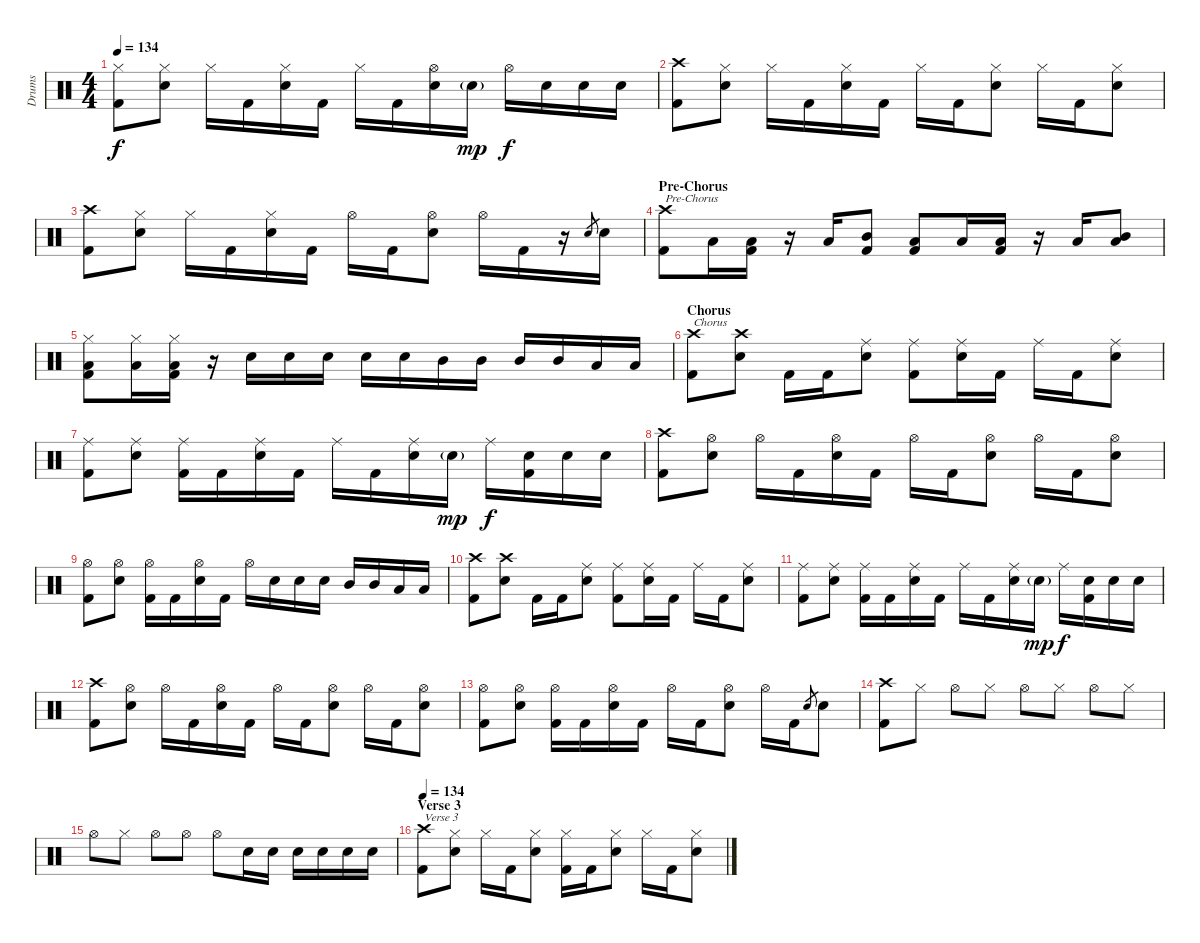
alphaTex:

\track ("Drums" "Drums") {instrument percussion}
\staff {score}
\articulation defaults
\ts (4 4)
\tempo 134
\clef neutral
\ks c
("Hi-Hat (closed)" "Kick (hit) 2").8{dy f} ("Hi-Hat (closed)" "Electric Snare (hit)").8 "Hi-Hat (closed)".16 "Kick (hit) 2".16 ("Hi-Hat (closed)" "Electric Snare (hit)").16 "Kick (hit) 2".16 "Hi-Hat (closed)".16 "Kick (hit) 2".16 ("Hi-Hat (open)" "Electric Snare (hit)").16 "Electric Snare (hit)"{g}.16{dy mp} "Hi-Hat (open)".16{dy f} "Electric Snare (hit)".16 "Electric Snare (hit)".16 "Electric Snare (hit)".16 |
("Crash high (hit)" "Kick (hit) 2").8 ("Hi-Hat (closed)" "Electric Snare (hit)").8 "Hi-Hat (closed)".16 "Kick (hit) 2".16 ("Hi-Hat (closed)" "Electric Snare (hit)").16 "Kick (hit) 2".16 "Hi-Hat (closed)".16 "Kick (hit) 2".16 ("Hi-Hat (closed)" "Electric Snare (hit)").8 "Hi-Hat (closed)".16 "Kick (hit) 2".16 ("Hi-Hat (closed)" "Electric Snare (hit)").8 |
("Crash high (hit)" "Kick (hit) 2").8 ("Hi-Hat (closed)" "Electric Snare (hit)").8 "Hi-Hat (closed)".16 "Kick (hit) 2".16 ("Hi-Hat (closed)" "Electric Snare (hit)").16 "Kick (hit) 2".16 "Hi-Hat (open)".16 "Kick (hit) 2".16 ("Hi-Hat (open)" "Electric Snare (hit)").8 "Hi-Hat (open)".16 "Kick (hit) 2".16 r.16 "Electric Snare (hit)".8{gr} "Electric Snare (hit)".16 |
\section ("" "Pre-Chorus")
("Crash high (hit)" "Kick (hit) 2").8{txt "Pre-Chorus"} "Low Floor Tom (hit)".16 ("Low Floor Tom (hit)" "Kick (hit) 2").16 r.16 "Low Floor Tom (hit)".16 ("Mid Tom (hit)" "Kick (hit) 2").8 ("Low Floor Tom (hit)" "Kick (hit) 2").8 "Low Floor Tom (hit)".16 ("Low Floor Tom (hit)" "Kick (hit) 2").16 r.16 "Low Floor Tom (hit)".16 ("Mid Tom (hit)" "Low Floor Tom (hit)").8 |
("Hi-Hat (closed)" "Low Floor Tom (hit)" "Kick (hit) 2").8 ("Hi-Hat (closed)" "Low Floor Tom (hit)").16 ("Hi-Hat (closed)" "Low Floor Tom (hit)" "Kick (hit) 2").16 r.16 "Electric Snare (hit)".16 "Electric Snare (hit)".16 "Electric Snare (hit)".16 "Electric Snare (hit)".16 "Electric Snare (hit)".16 "Mid Tom (hit)".16 "Mid Tom (hit)".16 "Mid Tom (hit)".16 "Mid Tom (hit)".16 "Low Floor Tom (hit)".16 "Low Floor Tom (hit)".16 |
\section ("" "Chorus")
("Crash high (hit)" "Kick (hit) 2").8{txt "Chorus"} ("Crash high (hit)" "Electric Snare (hit)").8 "Kick (hit) 2".16 "Kick (hit) 2".16 ("Ride (middle)" "Electric Snare (hit)").8 ("Ride (middle)" "Kick (hit) 2").8 ("Ride (middle)" "Electric Snare (hit)").16 "Kick (hit) 2".16 "Ride (middle)".16 "Kick (hit) 2".16 ("Ride (middle)" "Electric Snare (hit)").8 |
("Ride (middle)" "Kick (hit) 2").8 ("Ride (middle)" "Electric Snare (hit)").8 ("Ride (middle)" "Kick (hit) 2").16 "Kick (hit) 2".16 ("Ride (middle)" "Electric Snare (hit)").16 "Kick (hit) 2".16 "Ride (middle)".16 "Kick (hit) 2".16 ("Ride (middle)" "Electric Snare (hit)").16 "Electric Snare (hit)"{g}.16{dy mp} "Ride (middle)".16{dy f} ("Electric Snare (hit)" "Kick (hit) 2").16 "Electric Snare (hit)".16 "Electric Snare (hit)".16 |
("Crash high (hit)" "Kick (hit) 2").8 ("Hi-Hat (open)" "Electric Snare (hit)").8 "Hi-Hat (open)".16 "Kick (hit) 2".16 ("Hi-Hat (open)" "Electric Snare (hit)").16 "Kick (hit) 2".16 "Hi-Hat (open)".16 "Kick (hit) 2".16 ("Hi-Hat (open)" "Electric Snare (hit)").8 "Hi-Hat (open)".16 "Kick (hit) 2".16 ("Hi-Hat (open)" "Electric Snare (hit)").8 |
("Hi-Hat (open)" "Kick (hit) 2").8 ("Hi-Hat (open)" "Electric Snare (hit)").8 ("Hi-Hat (open)" "Kick (hit) 2").16 "Kick (hit) 2".16 ("Hi-Hat (open)" "Electric Snare (hit)").16 "Kick (hit) 2".16 "Hi-Hat (open)".16 "Electric Snare (hit)".16 "Electric Snare (hit)".16 "Electric Snare (hit)".16 "Mid Tom (hit)".16 "Mid Tom (hit)".16 "Low Floor Tom (hit)".16 "Low Floor Tom (hit)".16 |
("Crash high (hit)" "Kick (hit) 2").8 ("Crash high (hit)" "Electric Snare (hit)").8 "Kick (hit) 2".16 "Kick (hit) 2".16 ("Ride (middle)" "Electric Snare (hit)").8 ("Ride (middle)" "Kick (hit) 2").8 ("Ride (middle)" "Electric Snare (hit)").16 "Kick (hit) 2".16 "Ride (middle)".16 "Kick (hit) 2".16 ("Ride (middle)" "Electric Snare (hit)").8 |
("Ride (middle)" "Kick (hit) 2").8 ("Ride (middle)" "Electric Snare (hit)").8 ("Ride (middle)" "Kick (hit) 2").16 "Kick (hit) 2".16 ("Ride (middle)" "Electric Snare (hit)").16 "Kick (hit) 2".16 "Ride (middle)".16 "Kick (hit) 2".16 ("Ride (middle)" "Electric Snare (hit)").16 "Electric Snare (hit)"{g}.16{dy mp} "Ride (middle)".16{dy f} ("Electric Snare (hit)" "Kick (hit) 2").16 "Electric Snare (hit)".16 "Electric Snare (hit)".16 |
("Crash high (hit)" "Kick (hit) 2").8 ("Hi-Hat (open)" "Electric Snare (hit)").8 "Hi-Hat (open)".16 "Kick (hit) 2".16 ("Hi-Hat (open)" "Electric Snare (hit)").16 "Kick (hit) 2".16 "Hi-Hat (open)".16 "Kick (hit) 2".16 ("Hi-Hat (open)" "Electric Snare (hit)").8 "Hi-Hat (open)".16 "Kick (hit) 2".16 ("Hi-Hat (open)" "Electric Snare (hit)").8 |
("Hi-Hat (open)" "Kick (hit) 2").8 ("Hi-Hat (open)" "Electric Snare (hit)").8 ("Hi-Hat (open)" "Kick (hit) 2").16 "Kick (hit) 2".16 ("Hi-Hat (open)" "Electric Snare (hit)").16 "Kick (hit) 2".16 "Hi-Hat (open)".16 "Kick (hit) 2".16 ("Hi-Hat (open)" "Electric Snare (hit)").8 "Hi-Hat (open)".16 "Kick (hit) 2".16 "Electric Snare (hit)".8{gr} "Electric Snare (hit)".8 |
("Crash high (hit)" "Kick (hit) 2").8 "Hi-Hat (closed)".8 "Hi-Hat (open)".8 "Hi-Hat (closed)".8 "Hi-Hat (open)".8 "Hi-Hat (closed)".8 "Hi-Hat (open)".8 "Hi-Hat (closed)".8 |
"Hi-Hat (open)".8 "Hi-Hat (closed)".8 "Hi-Hat (open)".8 "Hi-Hat (open)".8 "Hi-Hat (open)".8 "Electric Snare (hit)".16 "Electric Snare (hit)".16 "Electric Snare (hit)".16 "Electric Snare (hit)".16 "Electric Snare (hit)".16 "Electric Snare (hit)".16 |
\section ("" "Verse 3")
\tempo 134
("Crash high (hit)" "Kick (hit) 2").8{txt "Verse 3"} ("Hi-Hat (closed)" "Electric Snare (hit)").8 "Hi-Hat (closed)".16 "Kick (hit) 2".16 ("Hi-Hat (closed)" "Electric Snare (hit)").8 ("Hi-Hat (closed)" "Kick (hit) 2").16 "Kick (hit) 2".16 ("Hi-Hat (closed)" "Electric Snare (hit)").8 "Hi-Hat (closed)".16 "Kick (hit) 2".16 ("Hi-Hat (closed)" "Electric Snare (hit)").8
